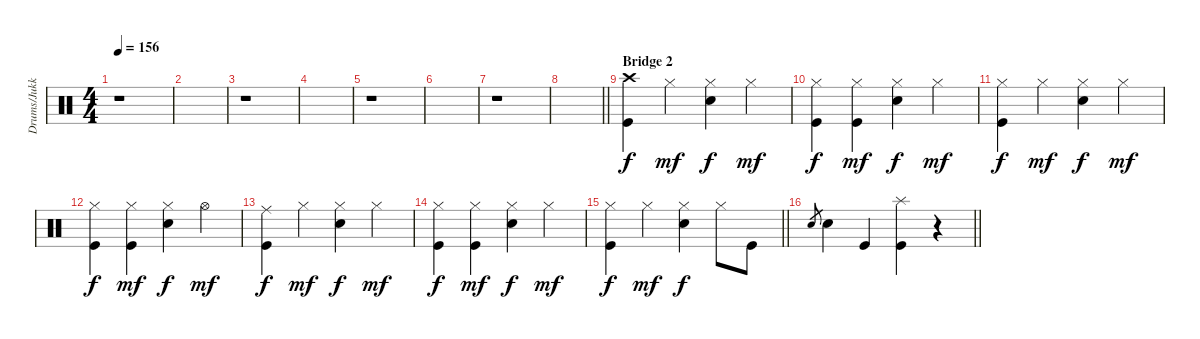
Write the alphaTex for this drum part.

\track ("Drums/Jukka" "Drums/Jukk") {instrument percussion}
\staff {score}
\articulation defaults
\ts (4 4)
\tempo 156
\clef neutral
\ks c
r.1{dy f} |
|
r.1 |
|
r.1 |
|
r.1 |
\barLineRight lightlight
|
\section ("" "Bridge 2")
("Crash high (hit)" "Kick (hit)").4 "Hi-Hat (closed)".4{dy mf} ("Hi-Hat (closed)" "Electric Snare (hit)").4{dy f} "Hi-Hat (closed)".4{dy mf} |
("Hi-Hat (closed)" "Kick (hit)").4{dy f} ("Hi-Hat (closed)" "Kick (hit)").4{dy mf} ("Hi-Hat (closed)" "Electric Snare (hit)").4{dy f} "Hi-Hat (closed)".4{dy mf} |
("Hi-Hat (closed)" "Kick (hit)").4{dy f} "Hi-Hat (closed)".4{dy mf} ("Hi-Hat (closed)" "Electric Snare (hit)").4{dy f} "Hi-Hat (closed)".4{dy mf} |
("Hi-Hat (closed)" "Kick (hit)").4{dy f} ("Hi-Hat (closed)" "Kick (hit)").4{dy mf} ("Hi-Hat (closed)" "Electric Snare (hit)").4{dy f} "Hi-Hat (open)".4{dy mf} |
("Ride (middle)" "Kick (hit)").4{dy f} "Hi-Hat (closed)".4{dy mf} ("Hi-Hat (closed)" "Electric Snare (hit)").4{dy f} "Hi-Hat (closed)".4{dy mf} |
("Hi-Hat (closed)" "Kick (hit)").4{dy f} ("Hi-Hat (closed)" "Kick (hit)").4{dy mf} ("Hi-Hat (closed)" "Electric Snare (hit)").4{dy f} "Hi-Hat (closed)".4{dy mf} |
\barLineRight lightlight
("Hi-Hat (closed)" "Kick (hit)").4{dy f} "Hi-Hat (closed)".4{dy mf} ("Hi-Hat (closed)" "Electric Snare (hit)").4{dy f} "Hi-Hat (closed)".8 "Kick (hit)".8 |
\barLineRight lightlight "Electric Snare (hit)".8{gr} "Electric Snare (hit)".4 "Kick (hit)".4
("Splash (hit)" "Kick (hit)").4 r.4
